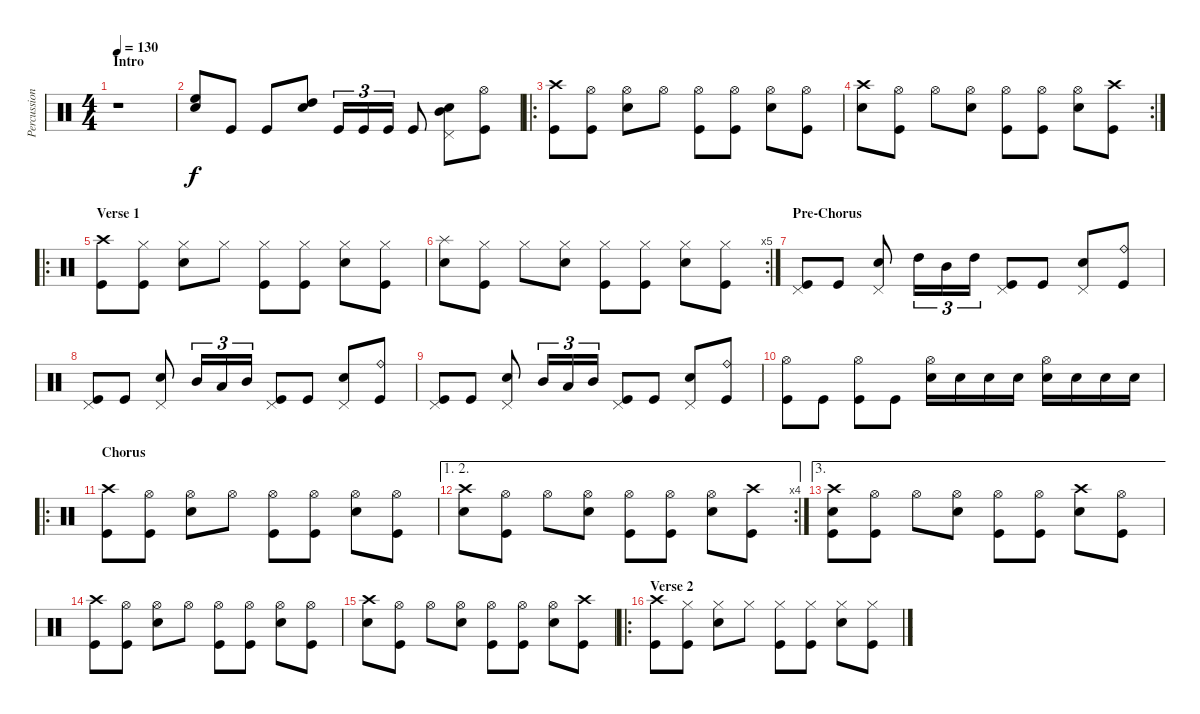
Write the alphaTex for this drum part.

\track ("Percussion" "Percussion") {instrument percussion}
\staff {score}
\articulation defaults
\ts (4 4)
\section ("" "Intro")
\tempo 130
\clef neutral
\ks c
r.1{dy f} |
("High Floor Tom (hit)" "Electric Snare (hit)").8 "Kick (hit)".8 "Kick (hit)".8 ("High Tom (hit)" "Electric Snare (hit)").8 "Kick (hit)".16{tu (3 2)} "Kick (hit)".16{tu (3 2)} "Kick (hit)".16{tu (3 2)} "Kick (hit)".8 ("Pedal Hi-Hat (hit)" "Mid Tom (hit)" "Electric Snare (hit)").8 ("Hi-Hat (open)" "Kick (hit)").8 |
\ro
("Crash high (hit)" "Kick (hit)").8 ("Hi-Hat (open)" "Kick (hit)").8 ("Hi-Hat (open)" "Electric Snare (hit)").8 "Hi-Hat (open)".8 ("Hi-Hat (open)" "Kick (hit)").8 ("Hi-Hat (open)" "Kick (hit)").8 ("Hi-Hat (open)" "Electric Snare (hit)").8 ("Hi-Hat (open)" "Kick (hit)").8 |
\rc 2
("Crash high (hit)" "Electric Snare (hit)").8 ("Hi-Hat (open)" "Kick (hit)").8 "Hi-Hat (open)".8 ("Hi-Hat (open)" "Electric Snare (hit)").8 ("Hi-Hat (open)" "Kick (hit)").8 ("Hi-Hat (open)" "Kick (hit)").8 ("Hi-Hat (open)" "Electric Snare (hit)").8 ("Crash high (hit)" "Kick (hit)").8 |
\ro
\section ("" "Verse 1")
("Crash high (hit)" "Kick (hit)").8 ("Hi-Hat (closed)" "Kick (hit)").8 ("Hi-Hat (closed)" "Electric Snare (hit)").8 "Hi-Hat (closed)".8 ("Hi-Hat (closed)" "Kick (hit)").8 ("Hi-Hat (closed)" "Kick (hit)").8 ("Hi-Hat (closed)" "Electric Snare (hit)").8 ("Hi-Hat (closed)" "Kick (hit)").8 |
\rc 5
("Splash (hit)" "Electric Snare (hit)").8 ("Hi-Hat (closed)" "Kick (hit)").8 "Hi-Hat (closed)".8 ("Hi-Hat (closed)" "Electric Snare (hit)").8 ("Hi-Hat (closed)" "Kick (hit)").8 ("Hi-Hat (closed)" "Kick (hit)").8 ("Hi-Hat (closed)" "Electric Snare (hit)").8 ("Hi-Hat (closed)" "Kick (hit)").8 |
\section ("" "Pre-Chorus")
("Pedal Hi-Hat (hit)" "Kick (hit)").8 "Kick (hit)".8 ("Pedal Hi-Hat (hit)" "Electric Snare (hit)").8 "High Tom (hit)".16{tu (3 2)} "Mid Tom (hit)".16{tu (3 2)} "High Tom (hit)".16{tu (3 2)} ("Pedal Hi-Hat (hit)" "Kick (hit)").8 "Kick (hit)".8 ("Pedal Hi-Hat (hit)" "Electric Snare (hit)").8 ("Ride (bell)" "Kick (hit)").8 |
("Pedal Hi-Hat (hit)" "Kick (hit)").8 "Kick (hit)".8 ("Pedal Hi-Hat (hit)" "Electric Snare (hit)").8 "Mid Tom (hit)".16{tu (3 2)} "Low Tom (hit)".16{tu (3 2)} "Mid Tom (hit)".16{tu (3 2)} ("Pedal Hi-Hat (hit)" "Kick (hit)").8 "Kick (hit)".8 ("Pedal Hi-Hat (hit)" "Electric Snare (hit)").8 ("Ride (bell)" "Kick (hit)").8 |
("Pedal Hi-Hat (hit)" "Kick (hit)").8 "Kick (hit)".8 ("Pedal Hi-Hat (hit)" "Electric Snare (hit)").8 "Mid Tom (hit)".16{tu (3 2)} "Low Tom (hit)".16{tu (3 2)} "Mid Tom (hit)".16{tu (3 2)} ("Pedal Hi-Hat (hit)" "Kick (hit)").8 "Kick (hit)".8 ("Pedal Hi-Hat (hit)" "Electric Snare (hit)").8 ("Ride (bell)" "Kick (hit)").8 |
("Hi-Hat (open)" "Kick (hit)").8 "Kick (hit)".8 ("Hi-Hat (open)" "Kick (hit)").8 "Kick (hit)".8 ("Hi-Hat (open)" "Electric Snare (hit)").16 "Electric Snare (hit)".16 "Electric Snare (hit)".16 "Electric Snare (hit)".16 ("Hi-Hat (open)" "Electric Snare (hit)").16 "Electric Snare (hit)".16 "Electric Snare (hit)".16 "Electric Snare (hit)".16 |
\ro
\section ("" "Chorus")
("Crash high (hit)" "Kick (hit)").8 ("Hi-Hat (open)" "Kick (hit)").8 ("Hi-Hat (open)" "Electric Snare (hit)").8 "Hi-Hat (open)".8 ("Hi-Hat (open)" "Kick (hit)").8 ("Hi-Hat (open)" "Kick (hit)").8 ("Hi-Hat (open)" "Electric Snare (hit)").8 ("Hi-Hat (open)" "Kick (hit)").8 |
\ae (1 2)
\rc 4
("Crash high (hit)" "Electric Snare (hit)").8 ("Hi-Hat (open)" "Kick (hit)").8 "Hi-Hat (open)".8 ("Hi-Hat (open)" "Electric Snare (hit)").8 ("Hi-Hat (open)" "Kick (hit)").8 ("Hi-Hat (open)" "Kick (hit)").8 ("Hi-Hat (open)" "Electric Snare (hit)").8 ("Crash high (hit)" "Kick (hit)").8 |
\ae 3
("Crash high (hit)" "Electric Snare (hit)" "Kick (hit)").8 ("Hi-Hat (open)" "Kick (hit)").8 "Hi-Hat (open)".8 ("Hi-Hat (open)" "Electric Snare (hit)").8 ("Hi-Hat (open)" "Kick (hit)").8 ("Hi-Hat (open)" "Kick (hit)").8 ("Crash high (hit)" "Electric Snare (hit)").8 ("Hi-Hat (open)" "Kick (hit)").8 |
("Crash high (hit)" "Kick (hit)").8 ("Hi-Hat (open)" "Kick (hit)").8 ("Hi-Hat (open)" "Electric Snare (hit)").8 "Hi-Hat (open)".8 ("Hi-Hat (open)" "Kick (hit)").8 ("Hi-Hat (open)" "Kick (hit)").8 ("Hi-Hat (open)" "Electric Snare (hit)").8 ("Hi-Hat (open)" "Kick (hit)").8 |
("Crash high (hit)" "Electric Snare (hit)").8 ("Hi-Hat (open)" "Kick (hit)").8 "Hi-Hat (open)".8 ("Hi-Hat (open)" "Electric Snare (hit)").8 ("Hi-Hat (open)" "Kick (hit)").8 ("Hi-Hat (open)" "Kick (hit)").8 ("Hi-Hat (open)" "Electric Snare (hit)").8 ("Crash high (hit)" "Kick (hit)").8 |
\ro
\section ("" "Verse 2")
("Crash high (hit)" "Kick (hit)").8 ("Hi-Hat (closed)" "Kick (hit)").8 ("Hi-Hat (closed)" "Electric Snare (hit)").8 "Hi-Hat (closed)".8 ("Hi-Hat (closed)" "Kick (hit)").8 ("Hi-Hat (closed)" "Kick (hit)").8 ("Hi-Hat (closed)" "Electric Snare (hit)").8 ("Hi-Hat (closed)" "Kick (hit)").8
